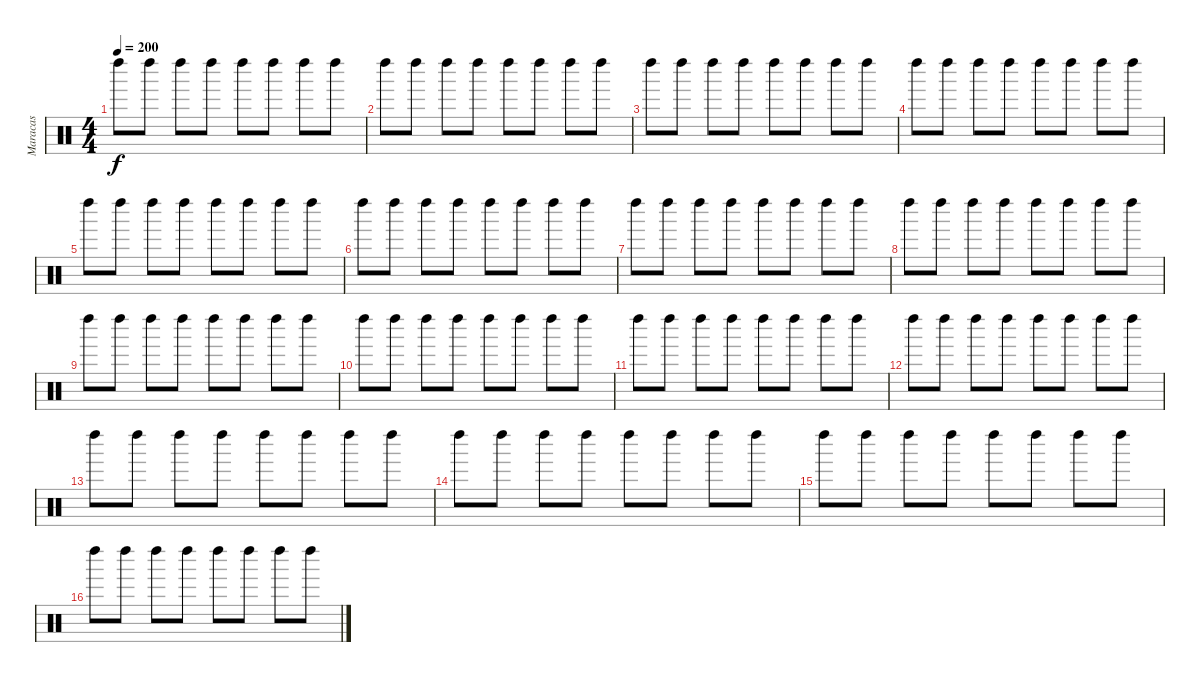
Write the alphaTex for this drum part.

\track ("Maracas" "Maracas") {instrument percussion}
\staff {score}
\articulation defaults
\ts (4 4)
\tempo 200
\clef neutral
\ks c "Left Maraca (hit)".8{dy f} "Left Maraca (hit)".8 "Left Maraca (hit)".8 "Left Maraca (hit)".8 "Left Maraca (hit)".8 "Left Maraca (hit)".8 "Left Maraca (hit)".8 "Left Maraca (hit)".8
|
"Left Maraca (hit)".8 "Left Maraca (hit)".8 "Left Maraca (hit)".8 "Left Maraca (hit)".8 "Left Maraca (hit)".8 "Left Maraca (hit)".8 "Left Maraca (hit)".8 "Left Maraca (hit)".8 |
"Left Maraca (hit)".8 "Left Maraca (hit)".8 "Left Maraca (hit)".8 "Left Maraca (hit)".8 "Left Maraca (hit)".8 "Left Maraca (hit)".8 "Left Maraca (hit)".8 "Left Maraca (hit)".8 |
"Left Maraca (hit)".8 "Left Maraca (hit)".8 "Left Maraca (hit)".8 "Left Maraca (hit)".8 "Left Maraca (hit)".8 "Left Maraca (hit)".8 "Left Maraca (hit)".8 "Left Maraca (hit)".8 |
"Left Maraca (hit)".8 "Left Maraca (hit)".8 "Left Maraca (hit)".8 "Left Maraca (hit)".8 "Left Maraca (hit)".8 "Left Maraca (hit)".8 "Left Maraca (hit)".8 "Left Maraca (hit)".8 |
"Left Maraca (hit)".8 "Left Maraca (hit)".8 "Left Maraca (hit)".8 "Left Maraca (hit)".8 "Left Maraca (hit)".8 "Left Maraca (hit)".8 "Left Maraca (hit)".8 "Left Maraca (hit)".8 |
"Left Maraca (hit)".8 "Left Maraca (hit)".8 "Left Maraca (hit)".8 "Left Maraca (hit)".8 "Left Maraca (hit)".8 "Left Maraca (hit)".8 "Left Maraca (hit)".8 "Left Maraca (hit)".8 |
"Left Maraca (hit)".8 "Left Maraca (hit)".8 "Left Maraca (hit)".8 "Left Maraca (hit)".8 "Left Maraca (hit)".8 "Left Maraca (hit)".8 "Left Maraca (hit)".8 "Left Maraca (hit)".8 |
"Left Maraca (hit)".8 "Left Maraca (hit)".8 "Left Maraca (hit)".8 "Left Maraca (hit)".8 "Left Maraca (hit)".8 "Left Maraca (hit)".8 "Left Maraca (hit)".8 "Left Maraca (hit)".8 |
"Left Maraca (hit)".8 "Left Maraca (hit)".8 "Left Maraca (hit)".8 "Left Maraca (hit)".8 "Left Maraca (hit)".8 "Left Maraca (hit)".8 "Left Maraca (hit)".8 "Left Maraca (hit)".8 |
"Left Maraca (hit)".8 "Left Maraca (hit)".8 "Left Maraca (hit)".8 "Left Maraca (hit)".8 "Left Maraca (hit)".8 "Left Maraca (hit)".8 "Left Maraca (hit)".8 "Left Maraca (hit)".8 |
"Left Maraca (hit)".8 "Left Maraca (hit)".8 "Left Maraca (hit)".8 "Left Maraca (hit)".8 "Left Maraca (hit)".8 "Left Maraca (hit)".8 "Left Maraca (hit)".8 "Left Maraca (hit)".8 |
"Left Maraca (hit)".8 "Left Maraca (hit)".8 "Left Maraca (hit)".8 "Left Maraca (hit)".8 "Left Maraca (hit)".8 "Left Maraca (hit)".8 "Left Maraca (hit)".8 "Left Maraca (hit)".8 |
"Left Maraca (hit)".8 "Left Maraca (hit)".8 "Left Maraca (hit)".8 "Left Maraca (hit)".8 "Left Maraca (hit)".8 "Left Maraca (hit)".8 "Left Maraca (hit)".8 "Left Maraca (hit)".8 |
"Left Maraca (hit)".8 "Left Maraca (hit)".8 "Left Maraca (hit)".8 "Left Maraca (hit)".8 "Left Maraca (hit)".8 "Left Maraca (hit)".8 "Left Maraca (hit)".8 "Left Maraca (hit)".8 |
"Left Maraca (hit)".8 "Left Maraca (hit)".8 "Left Maraca (hit)".8 "Left Maraca (hit)".8 "Left Maraca (hit)".8 "Left Maraca (hit)".8 "Left Maraca (hit)".8 "Left Maraca (hit)".8
